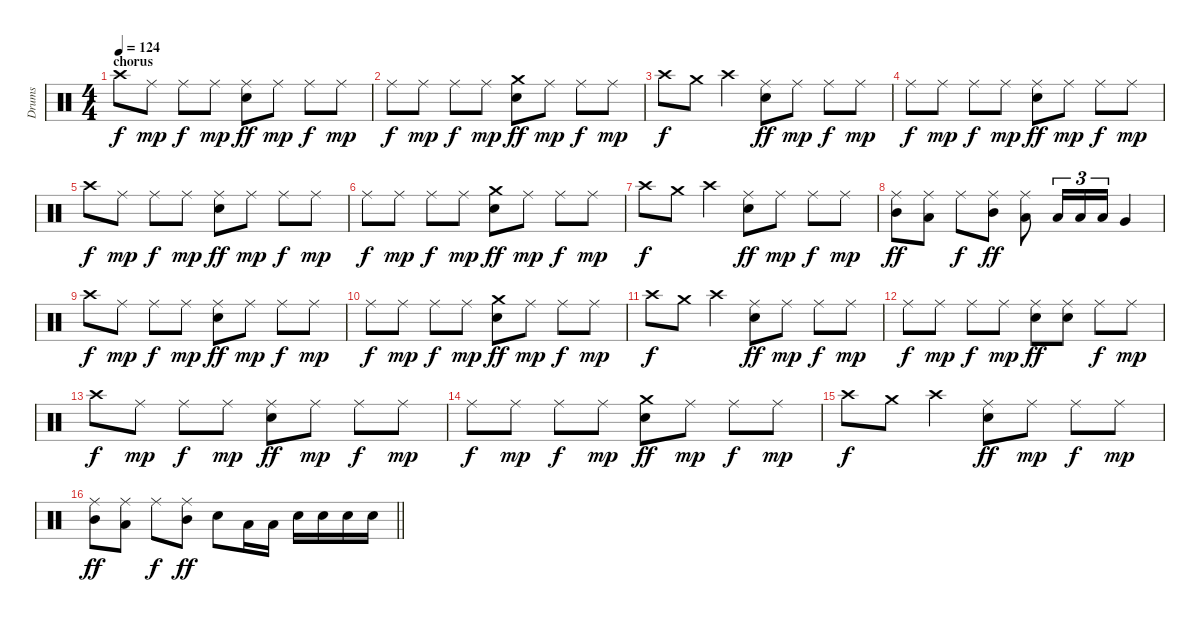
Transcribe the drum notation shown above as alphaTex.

\track ("Drums" "Drums") {instrument percussion}
\staff {score}
\articulation defaults
\ts (4 4)
\section ("" "chorus")
\tempo 124
\clef neutral
\ks c "Crash high (hit)".8{dy f} "Ride (middle)".8{dy mp} "Ride (middle)".8{dy f} "Ride (middle)".8{dy mp}
("Ride (middle)" "Snare (hit) 2").8{dy ff} "Ride (middle)".8{dy mp} "Ride (middle)".8{dy f} "Ride (middle)".8{dy mp} |
"Ride (middle)".8{dy f} "Ride (middle)".8{dy mp} "Ride (middle)".8{dy f} "Ride (middle)".8{dy mp} ("Crash medium (hit)" "Snare (hit) 2").8{dy ff} "Ride (middle)".8{dy mp} "Ride (middle)".8{dy f} "Ride (middle)".8{dy mp} |
"Crash high (hit)".8{dy f} "Crash medium (hit)".8 "Crash high (hit)".4 ("Ride (middle)" "Snare (hit) 2").8{dy ff} "Ride (middle)".8{dy mp} "Ride (middle)".8{dy f} "Ride (middle)".8{dy mp} |
"Ride (middle)".8{dy f} "Ride (middle)".8{dy mp} "Ride (middle)".8{dy f} "Ride (middle)".8{dy mp} ("Ride (middle)" "Snare (hit) 2").8{dy ff} "Ride (middle)".8{dy mp} "Ride (middle)".8{dy f} "Ride (middle)".8{dy mp} |
"Crash high (hit)".8{dy f} "Ride (middle)".8{dy mp} "Ride (middle)".8{dy f} "Ride (middle)".8{dy mp} ("Ride (middle)" "Snare (hit) 2").8{dy ff} "Ride (middle)".8{dy mp} "Ride (middle)".8{dy f} "Ride (middle)".8{dy mp} |
"Ride (middle)".8{dy f} "Ride (middle)".8{dy mp} "Ride (middle)".8{dy f} "Ride (middle)".8{dy mp} ("Crash medium (hit)" "Snare (hit) 2").8{dy ff} "Ride (middle)".8{dy mp} "Ride (middle)".8{dy f} "Ride (middle)".8{dy mp} |
"Crash high (hit)".8{dy f} "Crash medium (hit)".8 "Crash high (hit)".4 ("Ride (middle)" "Snare (hit) 2").8{dy ff} "Ride (middle)".8{dy mp} "Ride (middle)".8{dy f} "Ride (middle)".8{dy mp} |
("Ride (middle)" "Mid Tom (hit)").8{dy ff} ("Ride (middle)" "Low Tom (hit)").8 "Ride (middle)".8{dy f} ("Ride (middle)" "Mid Tom (hit)").8{dy ff} ("Ride (middle)" "Low Tom (hit)").8 "Low Tom (hit)".16{tu (3 2)} "Low Tom (hit)".16{tu (3 2)} "Low Tom (hit)".16{tu (3 2)} "Very Low Tom (hit)".4 |
"Crash high (hit)".8{dy f} "Ride (middle)".8{dy mp} "Ride (middle)".8{dy f} "Ride (middle)".8{dy mp} ("Ride (middle)" "Snare (hit) 2").8{dy ff} "Ride (middle)".8{dy mp} "Ride (middle)".8{dy f} "Ride (middle)".8{dy mp} |
"Ride (middle)".8{dy f} "Ride (middle)".8{dy mp} "Ride (middle)".8{dy f} "Ride (middle)".8{dy mp} ("Crash medium (hit)" "Snare (hit) 2").8{dy ff} "Ride (middle)".8{dy mp} "Ride (middle)".8{dy f} "Ride (middle)".8{dy mp} |
"Crash high (hit)".8{dy f} "Crash medium (hit)".8 "Crash high (hit)".4 ("Ride (middle)" "Snare (hit) 2").8{dy ff} "Ride (middle)".8{dy mp} "Ride (middle)".8{dy f} "Ride (middle)".8{dy mp} |
"Ride (middle)".8{dy f} "Ride (middle)".8{dy mp} "Ride (middle)".8{dy f} "Ride (middle)".8{dy mp} ("Ride (middle)" "Snare (hit) 2").8{dy ff} ("Ride (middle)" "Snare (hit) 2").8 "Ride (middle)".8{dy f} "Ride (middle)".8{dy mp} |
"Crash high (hit)".8{dy f} "Ride (middle)".8{dy mp} "Ride (middle)".8{dy f} "Ride (middle)".8{dy mp} ("Ride (middle)" "Snare (hit) 2").8{dy ff} "Ride (middle)".8{dy mp} "Ride (middle)".8{dy f} "Ride (middle)".8{dy mp} |
"Ride (middle)".8{dy f} "Ride (middle)".8{dy mp} "Ride (middle)".8{dy f} "Ride (middle)".8{dy mp} ("Crash medium (hit)" "Snare (hit) 2").8{dy ff} "Ride (middle)".8{dy mp} "Ride (middle)".8{dy f} "Ride (middle)".8{dy mp} |
"Crash high (hit)".8{dy f} "Crash medium (hit)".8 "Crash high (hit)".4 ("Ride (middle)" "Snare (hit) 2").8{dy ff} "Ride (middle)".8{dy mp} "Ride (middle)".8{dy f} "Ride (middle)".8{dy mp} |
\barLineRight lightlight
("Ride (middle)" "Mid Tom (hit)").8{dy ff} ("Ride (middle)" "Low Tom (hit)").8 "Ride (middle)".8{dy f} ("Ride (middle)" "Mid Tom (hit)").8{dy ff} "Snare (hit) 2".8 "Low Tom (hit)".16 "Low Tom (hit)".16 "Snare (hit) 2".16 "Snare (hit) 2".16 "Snare (hit) 2".16 "Snare (hit) 2".16
